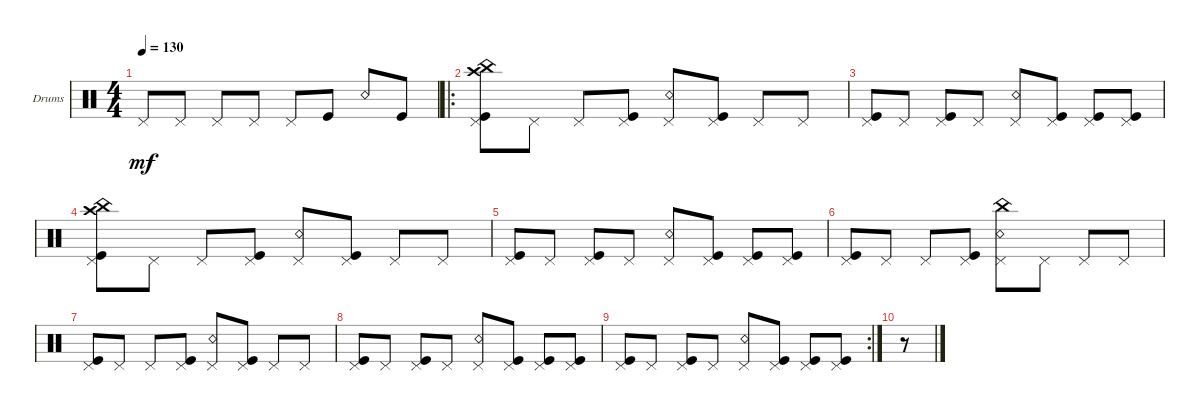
\defaultSystemsLayout 4
\bracketExtendMode groupsimilarinstruments
\firstSystemTrackNameOrientation horizontal
\otherSystemsTrackNameOrientation horizontal
\track ("Drumkit" "Drums") {instrument percussion}
\staff {score}
\articulation defaults
\ts (4 4)
\tempo 130
\clef neutral
\scale
0.447368
\ks c "Pedal Hi-Hat (hit)".8{dy mf} "Pedal Hi-Hat (hit)".8 "Pedal Hi-Hat (hit)".8 "Pedal Hi-Hat (hit)".8 "Pedal Hi-Hat (hit)".8 "Kick (hit)".8 "Snare (rim shot)".8 "Kick (hit)".8
|
\ro
\scale
0.302632 ("Pedal Hi-Hat (hit)" "China (hit)" "Crash high (hit)" "Kick (hit)").8 "Pedal Hi-Hat (hit)".8 "Pedal Hi-Hat (hit)".8 ("Pedal Hi-Hat (hit)" "Kick (hit)").8 ("Pedal Hi-Hat (hit)" "Snare (rim shot)").8 ("Pedal Hi-Hat (hit)" "Kick (hit)").8 "Pedal Hi-Hat (hit)".8 "Pedal Hi-Hat (hit)".8 |
\scale
0.25 ("Pedal Hi-Hat (hit)" "Kick (hit)").8 "Pedal Hi-Hat (hit)".8 ("Pedal Hi-Hat (hit)" "Kick (hit)").8 "Pedal Hi-Hat (hit)".8 ("Pedal Hi-Hat (hit)" "Snare (rim shot)").8 ("Pedal Hi-Hat (hit)" "Kick (hit)").8 ("Pedal Hi-Hat (hit)" "Kick (hit)").8 ("Pedal Hi-Hat (hit)" "Kick (hit)").8 |
\scale
0.333333 ("Pedal Hi-Hat (hit)" "China (hit)" "Crash high (hit)" "Kick (hit)").8 "Pedal Hi-Hat (hit)".8 "Pedal Hi-Hat (hit)".8 ("Pedal Hi-Hat (hit)" "Kick (hit)").8 ("Pedal Hi-Hat (hit)" "Snare (rim shot)").8 ("Pedal Hi-Hat (hit)" "Kick (hit)").8 "Pedal Hi-Hat (hit)".8 "Pedal Hi-Hat (hit)".8 |
\scale
0.333333 ("Pedal Hi-Hat (hit)" "Kick (hit)").8 "Pedal Hi-Hat (hit)".8 ("Pedal Hi-Hat (hit)" "Kick (hit)").8 "Pedal Hi-Hat (hit)".8 ("Pedal Hi-Hat (hit)" "Snare (rim shot)").8 ("Pedal Hi-Hat (hit)" "Kick (hit)").8 ("Pedal Hi-Hat (hit)" "Kick (hit)").8 ("Pedal Hi-Hat (hit)" "Kick (hit)").8 |
\scale
0.333333 ("Pedal Hi-Hat (hit)" "Kick (hit)").8 "Pedal Hi-Hat (hit)".8 "Pedal Hi-Hat (hit)".8 ("Pedal Hi-Hat (hit)" "Kick (hit)").8 ("Pedal Hi-Hat (hit)" "Snare (rim shot)" "China (hit)").8 "Pedal Hi-Hat (hit)".8 "Pedal Hi-Hat (hit)".8 "Pedal Hi-Hat (hit)".8 |
\scale
0.322034 ("Pedal Hi-Hat (hit)" "Kick (hit)").8 "Pedal Hi-Hat (hit)".8 "Pedal Hi-Hat (hit)".8 ("Pedal Hi-Hat (hit)" "Kick (hit)").8 ("Pedal Hi-Hat (hit)" "Snare (rim shot)").8 ("Pedal Hi-Hat (hit)" "Kick (hit)").8 "Pedal Hi-Hat (hit)".8 "Pedal Hi-Hat (hit)".8 |
\scale
0.322034 ("Pedal Hi-Hat (hit)" "Kick (hit)").8 "Pedal Hi-Hat (hit)".8 ("Pedal Hi-Hat (hit)" "Kick (hit)").8 "Pedal Hi-Hat (hit)".8 ("Pedal Hi-Hat (hit)" "Snare (rim shot)").8 ("Pedal Hi-Hat (hit)" "Kick (hit)").8 ("Pedal Hi-Hat (hit)" "Kick (hit)").8 ("Pedal Hi-Hat (hit)" "Kick (hit)").8 |
\rc 2
\scale
0.355932 ("Pedal Hi-Hat (hit)" "Kick (hit)").8 "Pedal Hi-Hat (hit)".8 ("Pedal Hi-Hat (hit)" "Kick (hit)").8 "Pedal Hi-Hat (hit)".8 ("Pedal Hi-Hat (hit)" "Snare (rim shot)").8 ("Pedal Hi-Hat (hit)" "Kick (hit)").8 ("Pedal Hi-Hat (hit)" "Kick (hit)").8 ("Pedal Hi-Hat (hit)" "Kick (hit)").8 |
r.8
